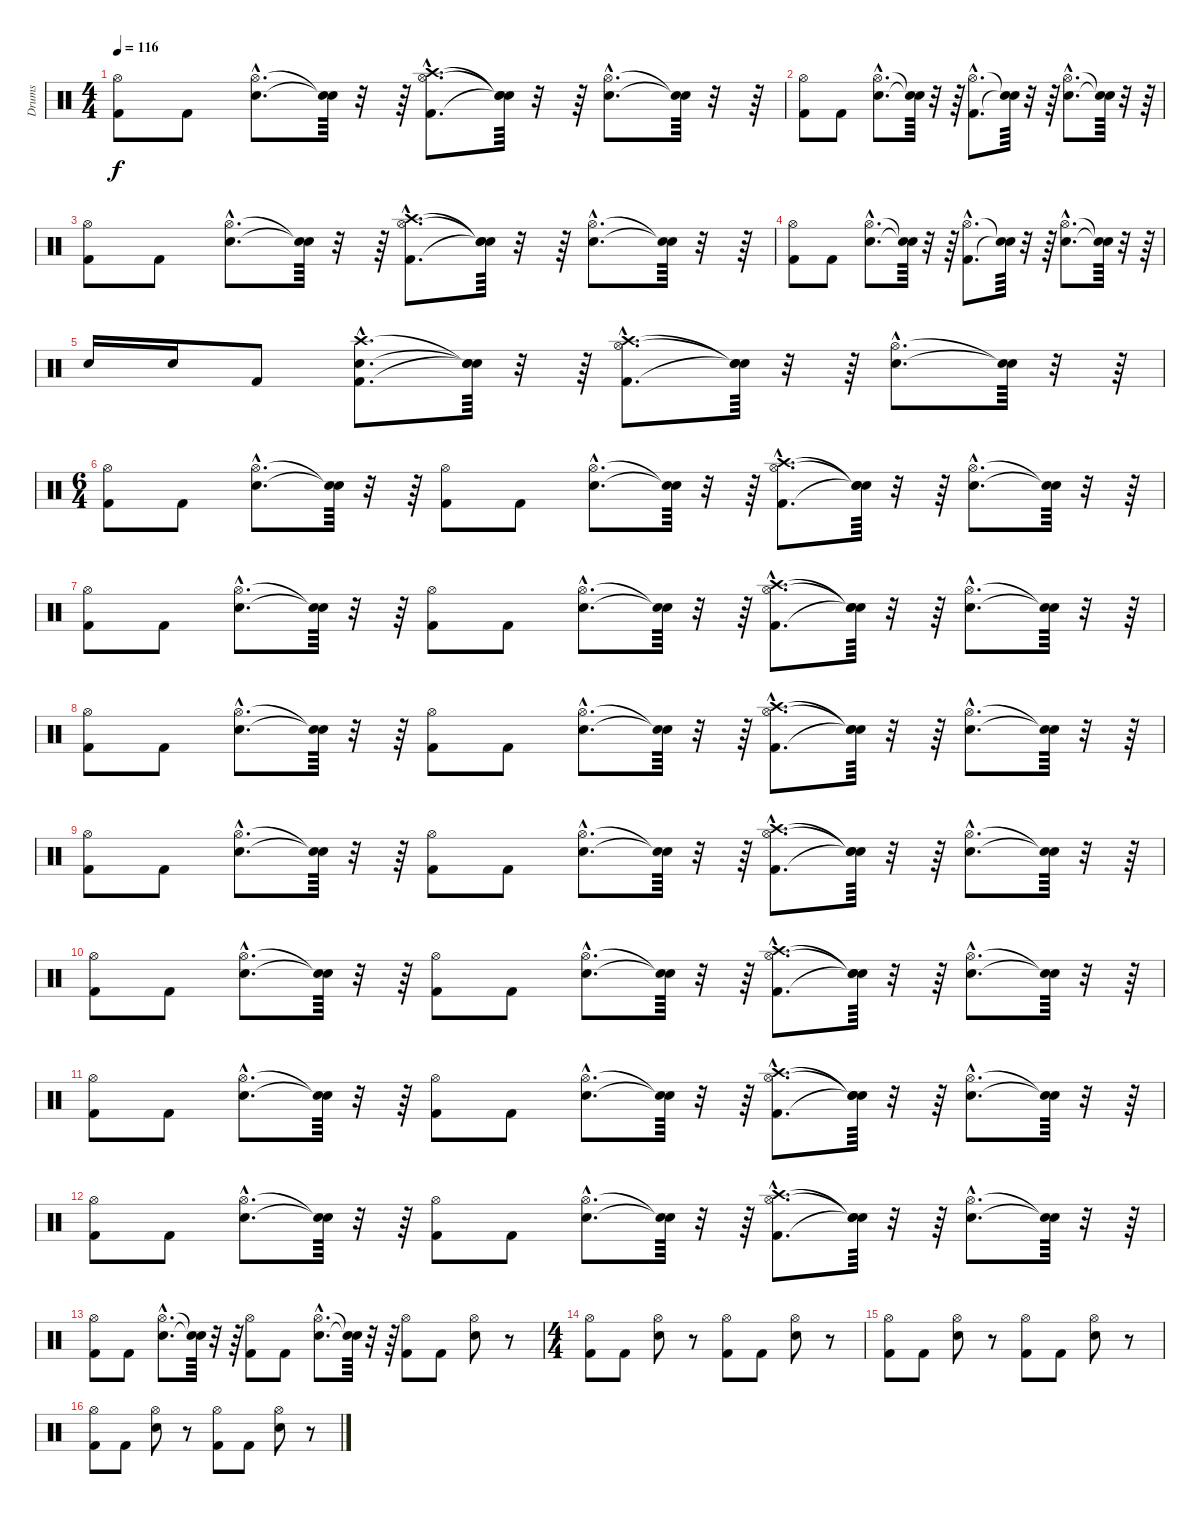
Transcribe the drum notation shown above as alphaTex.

\track ("Drums" "Drums") {instrument percussion}
\staff {score}
\articulation defaults
\ts (4 4)
\tempo 116
\clef neutral
\ks c
("Kick (hit) 2" "Hi-Hat (open)").8{dy f} "Kick (hit) 2".8 ("Snare (hit) 2"{hac} "Hi-Hat (open)"{hac}).8{d} ("Snare (hit)"{t} "Snare (hit)"{t}).64 r.32 r.64 ("Kick (hit) 2"{hac} "Hi-Hat (open)"{hac} "Crash high (hit)"{hac}).8{d} ("Snare (hit)"{t} "Snare (hit)"{t} "Snare (hit)"{t}).64 r.32 r.64 ("Snare (hit) 2"{hac} "Hi-Hat (open)"{hac}).8{d} ("Snare (hit)"{t} "Snare (hit)"{t}).64 r.32 r.64 |
("Kick (hit) 2" "Hi-Hat (open)").8 "Kick (hit) 2".8 ("Snare (hit) 2"{hac} "Hi-Hat (open)"{hac}).8{d} ("Snare (hit)"{t} "Snare (hit)"{t}).64 r.32 r.64 ("Kick (hit) 2"{hac} "Hi-Hat (open)"{hac}).8{d} ("Snare (hit)"{t} "Snare (hit)"{t}).64 r.32 r.64 ("Snare (hit) 2"{hac} "Hi-Hat (open)"{hac}).8{d} ("Snare (hit)"{t} "Snare (hit)"{t}).64 r.32 r.64 |
("Kick (hit) 2" "Hi-Hat (open)").8 "Kick (hit) 2".8 ("Snare (hit) 2"{hac} "Hi-Hat (open)"{hac}).8{d} ("Snare (hit)"{t} "Snare (hit)"{t}).64 r.32 r.64 ("Kick (hit) 2"{hac} "Hi-Hat (open)"{hac} "Crash high (hit)"{hac}).8{d} ("Snare (hit)"{t} "Snare (hit)"{t} "Snare (hit)"{t}).64 r.32 r.64 ("Snare (hit) 2"{hac} "Hi-Hat (open)"{hac}).8{d} ("Snare (hit)"{t} "Snare (hit)"{t}).64 r.32 r.64 |
("Kick (hit) 2" "Hi-Hat (open)").8 "Kick (hit) 2".8 ("Snare (hit) 2"{hac} "Hi-Hat (open)"{hac}).8{d} ("Snare (hit)"{t} "Snare (hit)"{t}).64 r.32 r.64 ("Kick (hit) 2"{hac} "Hi-Hat (open)"{hac}).8{d} ("Snare (hit)"{t} "Snare (hit)"{t}).64 r.32 r.64 ("Snare (hit) 2"{hac} "Hi-Hat (open)"{hac}).8{d} ("Snare (hit)"{t} "Snare (hit)"{t}).64 r.32 r.64 |
"Snare (hit) 2".16 "Snare (hit) 2".16 "Kick (hit) 2".8 ("Kick (hit) 2"{hac} "Snare (hit) 2"{hac} "Crash high (hit)"{hac}).8{d} ("Snare (hit)"{t} "Snare (hit)"{t} "Snare (hit)"{t}).64 r.32 r.64 ("Kick (hit) 2"{hac} "Hi-Hat (open)"{hac} "Crash high (hit)"{hac}).8{d} ("Snare (hit)"{t} "Snare (hit)"{t} "Snare (hit)"{t}).64 r.32 r.64 ("Snare (hit) 2"{hac} "Hi-Hat (open)"{hac}).8{d} ("Snare (hit)"{t} "Snare (hit)"{t}).64 r.32 r.64 |
\ts (6 4)
("Kick (hit) 2" "Hi-Hat (open)").8 "Kick (hit) 2".8 ("Snare (hit) 2"{hac} "Hi-Hat (open)"{hac}).8{d} ("Snare (hit)"{t} "Snare (hit)"{t}).64 r.32 r.64 ("Kick (hit) 2" "Hi-Hat (open)").8 "Kick (hit) 2".8 ("Snare (hit) 2"{hac} "Hi-Hat (open)"{hac}).8{d} ("Snare (hit)"{t} "Snare (hit)"{t}).64 r.32 r.64 ("Kick (hit) 2"{hac} "Hi-Hat (open)"{hac} "Crash high (hit)"{hac}).8{d} ("Snare (hit)"{t} "Snare (hit)"{t} "Snare (hit)"{t}).64 r.32 r.64 ("Snare (hit) 2"{hac} "Hi-Hat (open)"{hac}).8{d} ("Snare (hit)"{t} "Snare (hit)"{t}).64 r.32 r.64 |
("Kick (hit) 2" "Hi-Hat (open)").8 "Kick (hit) 2".8 ("Snare (hit) 2"{hac} "Hi-Hat (open)"{hac}).8{d} ("Snare (hit)"{t} "Snare (hit)"{t}).64 r.32 r.64 ("Kick (hit) 2" "Hi-Hat (open)").8 "Kick (hit) 2".8 ("Snare (hit) 2"{hac} "Hi-Hat (open)"{hac}).8{d} ("Snare (hit)"{t} "Snare (hit)"{t}).64 r.32 r.64 ("Kick (hit) 2"{hac} "Hi-Hat (open)"{hac} "Crash high (hit)"{hac}).8{d} ("Snare (hit)"{t} "Snare (hit)"{t} "Snare (hit)"{t}).64 r.32 r.64 ("Snare (hit) 2"{hac} "Hi-Hat (open)"{hac}).8{d} ("Snare (hit)"{t} "Snare (hit)"{t}).64 r.32 r.64 |
("Kick (hit) 2" "Hi-Hat (open)").8 "Kick (hit) 2".8 ("Snare (hit) 2"{hac} "Hi-Hat (open)"{hac}).8{d} ("Snare (hit)"{t} "Snare (hit)"{t}).64 r.32 r.64 ("Kick (hit) 2" "Hi-Hat (open)").8 "Kick (hit) 2".8 ("Snare (hit) 2"{hac} "Hi-Hat (open)"{hac}).8{d} ("Snare (hit)"{t} "Snare (hit)"{t}).64 r.32 r.64 ("Kick (hit) 2"{hac} "Hi-Hat (open)"{hac} "Crash high (hit)"{hac}).8{d} ("Snare (hit)"{t} "Snare (hit)"{t} "Snare (hit)"{t}).64 r.32 r.64 ("Snare (hit) 2"{hac} "Hi-Hat (open)"{hac}).8{d} ("Snare (hit)"{t} "Snare (hit)"{t}).64 r.32 r.64 |
("Kick (hit) 2" "Hi-Hat (open)").8 "Kick (hit) 2".8 ("Snare (hit) 2"{hac} "Hi-Hat (open)"{hac}).8{d} ("Snare (hit)"{t} "Snare (hit)"{t}).64 r.32 r.64 ("Kick (hit) 2" "Hi-Hat (open)").8 "Kick (hit) 2".8 ("Snare (hit) 2"{hac} "Hi-Hat (open)"{hac}).8{d} ("Snare (hit)"{t} "Snare (hit)"{t}).64 r.32 r.64 ("Kick (hit) 2"{hac} "Hi-Hat (open)"{hac} "Crash high (hit)"{hac}).8{d} ("Snare (hit)"{t} "Snare (hit)"{t} "Snare (hit)"{t}).64 r.32 r.64 ("Snare (hit) 2"{hac} "Hi-Hat (open)"{hac}).8{d} ("Snare (hit)"{t} "Snare (hit)"{t}).64 r.32 r.64 |
("Kick (hit) 2" "Hi-Hat (open)").8 "Kick (hit) 2".8 ("Snare (hit) 2"{hac} "Hi-Hat (open)"{hac}).8{d} ("Snare (hit)"{t} "Snare (hit)"{t}).64 r.32 r.64 ("Kick (hit) 2" "Hi-Hat (open)").8 "Kick (hit) 2".8 ("Snare (hit) 2"{hac} "Hi-Hat (open)"{hac}).8{d} ("Snare (hit)"{t} "Snare (hit)"{t}).64 r.32 r.64 ("Kick (hit) 2"{hac} "Hi-Hat (open)"{hac} "Crash high (hit)"{hac}).8{d} ("Snare (hit)"{t} "Snare (hit)"{t} "Snare (hit)"{t}).64 r.32 r.64 ("Snare (hit) 2"{hac} "Hi-Hat (open)"{hac}).8{d} ("Snare (hit)"{t} "Snare (hit)"{t}).64 r.32 r.64 |
("Kick (hit) 2" "Hi-Hat (open)").8 "Kick (hit) 2".8 ("Snare (hit) 2"{hac} "Hi-Hat (open)"{hac}).8{d} ("Snare (hit)"{t} "Snare (hit)"{t}).64 r.32 r.64 ("Kick (hit) 2" "Hi-Hat (open)").8 "Kick (hit) 2".8 ("Snare (hit) 2"{hac} "Hi-Hat (open)"{hac}).8{d} ("Snare (hit)"{t} "Snare (hit)"{t}).64 r.32 r.64 ("Kick (hit) 2"{hac} "Hi-Hat (open)"{hac} "Crash high (hit)"{hac}).8{d} ("Snare (hit)"{t} "Snare (hit)"{t} "Snare (hit)"{t}).64 r.32 r.64 ("Snare (hit) 2"{hac} "Hi-Hat (open)"{hac}).8{d} ("Snare (hit)"{t} "Snare (hit)"{t}).64 r.32 r.64 |
("Kick (hit) 2" "Hi-Hat (open)").8 "Kick (hit) 2".8 ("Snare (hit) 2"{hac} "Hi-Hat (open)"{hac}).8{d} ("Snare (hit)"{t} "Snare (hit)"{t}).64 r.32 r.64 ("Kick (hit) 2" "Hi-Hat (open)").8 "Kick (hit) 2".8 ("Snare (hit) 2"{hac} "Hi-Hat (open)"{hac}).8{d} ("Snare (hit)"{t} "Snare (hit)"{t}).64 r.32 r.64 ("Kick (hit) 2"{hac} "Hi-Hat (open)"{hac} "Crash high (hit)"{hac}).8{d} ("Snare (hit)"{t} "Snare (hit)"{t} "Snare (hit)"{t}).64 r.32 r.64 ("Snare (hit) 2"{hac} "Hi-Hat (open)"{hac}).8{d} ("Snare (hit)"{t} "Snare (hit)"{t}).64 r.32 r.64 |
("Kick (hit) 2" "Hi-Hat (open)").8 "Kick (hit) 2".8 ("Snare (hit) 2"{hac} "Hi-Hat (open)"{hac}).8{d} ("Snare (hit)"{t} "Snare (hit)"{t}).64 r.32 r.64 ("Kick (hit) 2" "Hi-Hat (open)").8 "Kick (hit) 2".8 ("Snare (hit) 2"{hac} "Hi-Hat (open)"{hac}).8{d} ("Snare (hit)"{t} "Snare (hit)"{t}).64 r.32 r.64 ("Kick (hit) 2" "Hi-Hat (open)").8 "Kick (hit) 2".8 ("Snare (hit) 2" "Hi-Hat (open)").8 r.8 |
\ts (4 4)
("Kick (hit) 2" "Hi-Hat (open)").8 "Kick (hit) 2".8 ("Snare (hit) 2" "Hi-Hat (open)").8 r.8 ("Kick (hit) 2" "Hi-Hat (open)").8 "Kick (hit) 2".8 ("Snare (hit) 2" "Hi-Hat (open)").8 r.8 |
("Kick (hit) 2" "Hi-Hat (open)").8 "Kick (hit) 2".8 ("Snare (hit) 2" "Hi-Hat (open)").8 r.8 ("Kick (hit) 2" "Hi-Hat (open)").8 "Kick (hit) 2".8 ("Snare (hit) 2" "Hi-Hat (open)").8 r.8 |
("Kick (hit) 2" "Hi-Hat (open)").8 "Kick (hit) 2".8 ("Snare (hit) 2" "Hi-Hat (open)").8 r.8 ("Kick (hit) 2" "Hi-Hat (open)").8 "Kick (hit) 2".8 ("Snare (hit) 2" "Hi-Hat (open)").8 r.8
